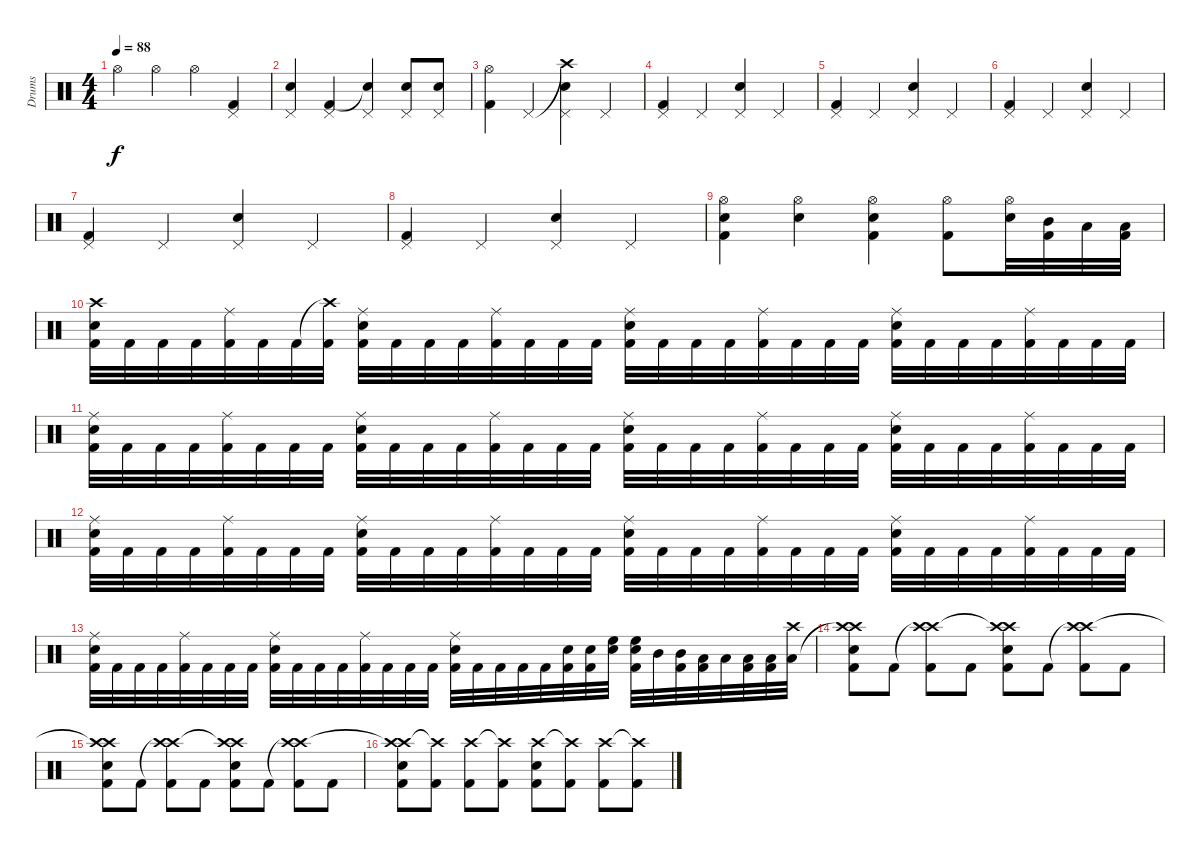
\track ("Drums" "Drums") {instrument percussion}
\staff {score}
\articulation defaults
\ts (4 4)
\tempo 88
\clef neutral
\ks c "Hi-Hat (open)".4{dy f} "Hi-Hat (open)".4 "Hi-Hat (open)".4
("Pedal Hi-Hat (hit)" "Kick (hit) 2").4 |
("Pedal Hi-Hat (hit)" "Electric Snare (hit)").4 ("Pedal Hi-Hat (hit)" "Kick (hit) 2").4 ("Pedal Hi-Hat (hit)" "Snare (hit) 2"{t}).4 ("Pedal Hi-Hat (hit)" "Electric Snare (hit)").8 ("Pedal Hi-Hat (hit)" "Electric Snare (hit)").8 |
("Hi-Hat (open)" "Kick (hit) 2").4 "Pedal Hi-Hat (hit)".4 ("Crash high (hit)"{t} "Pedal Hi-Hat (hit)" "Electric Snare (hit)").4 "Pedal Hi-Hat (hit)".4 |
("Pedal Hi-Hat (hit)" "Kick (hit) 2").4 "Pedal Hi-Hat (hit)".4 ("Pedal Hi-Hat (hit)" "Electric Snare (hit)").4 "Pedal Hi-Hat (hit)".4 |
("Pedal Hi-Hat (hit)" "Kick (hit) 2").4 "Pedal Hi-Hat (hit)".4 ("Pedal Hi-Hat (hit)" "Electric Snare (hit)").4 "Pedal Hi-Hat (hit)".4 |
("Pedal Hi-Hat (hit)" "Kick (hit) 2").4 "Pedal Hi-Hat (hit)".4 ("Pedal Hi-Hat (hit)" "Electric Snare (hit)").4 "Pedal Hi-Hat (hit)".4 |
("Pedal Hi-Hat (hit)" "Kick (hit) 2").4 "Pedal Hi-Hat (hit)".4 ("Pedal Hi-Hat (hit)" "Electric Snare (hit)").4 "Pedal Hi-Hat (hit)".4 |
("Pedal Hi-Hat (hit)" "Kick (hit) 2").4 "Pedal Hi-Hat (hit)".4 ("Pedal Hi-Hat (hit)" "Electric Snare (hit)").4 "Pedal Hi-Hat (hit)".4 |
("Hi-Hat (open)" "Kick (hit) 2" "Electric Snare (hit)").4 ("Hi-Hat (open)" "Electric Snare (hit)").4 ("Hi-Hat (open)" "Kick (hit) 2" "Electric Snare (hit)").4 ("Hi-Hat (open)" "Kick (hit) 2").8 ("Hi-Hat (open)" "Snare (hit) 2").32 ("Kick (hit) 2" "Mid Tom (hit)").32 "Low Tom (hit)".32 ("Kick (hit) 2" "Low Floor Tom (hit)").32 |
("Crash high (hit)" "Kick (hit) 2" "Electric Snare (hit)").32 "Kick (hit) 2".32 "Kick (hit) 2".32 "Kick (hit) 2".32 ("Ride (middle)" "Kick (hit) 2").32 "Kick (hit) 2".32 "Kick (hit) 2".32 ("Crash high (hit)"{t} "Kick (hit) 2").32 ("Ride (middle)" "Kick (hit) 2" "Electric Snare (hit)").32 "Kick (hit) 2".32 "Kick (hit) 2".32 "Kick (hit) 2".32 ("Ride (middle)" "Kick (hit) 2").32 "Kick (hit) 2".32 "Kick (hit) 2".32 "Kick (hit) 2".32 ("Ride (middle)" "Kick (hit) 2" "Electric Snare (hit)").32 "Kick (hit) 2".32 "Kick (hit) 2".32 "Kick (hit) 2".32 ("Ride (middle)" "Kick (hit) 2").32 "Kick (hit) 2".32 "Kick (hit) 2".32 "Kick (hit) 2".32 ("Ride (middle)" "Kick (hit) 2" "Electric Snare (hit)").32 "Kick (hit) 2".32 "Kick (hit) 2".32 "Kick (hit) 2".32 ("Ride (middle)" "Kick (hit) 2").32 "Kick (hit) 2".32 "Kick (hit) 2".32 "Kick (hit) 2".32 |
("Ride (middle)" "Kick (hit) 2" "Electric Snare (hit)").32 "Kick (hit) 2".32 "Kick (hit) 2".32 "Kick (hit) 2".32 ("Ride (middle)" "Kick (hit) 2").32 "Kick (hit) 2".32 "Kick (hit) 2".32 "Kick (hit) 2".32 ("Ride (middle)" "Kick (hit) 2" "Electric Snare (hit)").32 "Kick (hit) 2".32 "Kick (hit) 2".32 "Kick (hit) 2".32 ("Ride (middle)" "Kick (hit) 2").32 "Kick (hit) 2".32 "Kick (hit) 2".32 "Kick (hit) 2".32 ("Ride (middle)" "Kick (hit) 2" "Electric Snare (hit)").32 "Kick (hit) 2".32 "Kick (hit) 2".32 "Kick (hit) 2".32 ("Ride (middle)" "Kick (hit) 2").32 "Kick (hit) 2".32 "Kick (hit) 2".32 "Kick (hit) 2".32 ("Ride (middle)" "Kick (hit) 2" "Electric Snare (hit)").32 "Kick (hit) 2".32 "Kick (hit) 2".32 "Kick (hit) 2".32 ("Ride (middle)" "Kick (hit) 2").32 "Kick (hit) 2".32 "Kick (hit) 2".32 "Kick (hit) 2".32 |
("Ride (middle)" "Kick (hit) 2" "Electric Snare (hit)").32 "Kick (hit) 2".32 "Kick (hit) 2".32 "Kick (hit) 2".32 ("Ride (middle)" "Kick (hit) 2").32 "Kick (hit) 2".32 "Kick (hit) 2".32 "Kick (hit) 2".32 ("Ride (middle)" "Kick (hit) 2" "Electric Snare (hit)").32 "Kick (hit) 2".32 "Kick (hit) 2".32 "Kick (hit) 2".32 ("Ride (middle)" "Kick (hit) 2").32 "Kick (hit) 2".32 "Kick (hit) 2".32 "Kick (hit) 2".32 ("Ride (middle)" "Kick (hit) 2" "Electric Snare (hit)").32 "Kick (hit) 2".32 "Kick (hit) 2".32 "Kick (hit) 2".32 ("Ride (middle)" "Kick (hit) 2").32 "Kick (hit) 2".32 "Kick (hit) 2".32 "Kick (hit) 2".32 ("Ride (middle)" "Kick (hit) 2" "Electric Snare (hit)").32 "Kick (hit) 2".32 "Kick (hit) 2".32 "Kick (hit) 2".32 ("Ride (middle)" "Kick (hit) 2").32 "Kick (hit) 2".32 "Kick (hit) 2".32 "Kick (hit) 2".32 |
("Ride (middle)" "Kick (hit) 2" "Electric Snare (hit)").32 "Kick (hit) 2".32 "Kick (hit) 2".32 "Kick (hit) 2".32 ("Ride (middle)" "Kick (hit) 2").32 "Kick (hit) 2".32 "Kick (hit) 2".32 "Kick (hit) 2".32 ("Ride (middle)" "Kick (hit) 2" "Electric Snare (hit)").32 "Kick (hit) 2".32 "Kick (hit) 2".32 "Kick (hit) 2".32 ("Ride (middle)" "Kick (hit) 2").32 "Kick (hit) 2".32 "Kick (hit) 2".32 "Kick (hit) 2".32 ("Ride (middle)" "Kick (hit) 2" "Electric Snare (hit)").32 "Kick (hit) 2".32 "Kick (hit) 2".32 "Kick (hit) 2".32 "Kick (hit) 2".32 ("Kick (hit) 2" "Electric Snare (hit)").32 ("Kick (hit) 2" "Electric Snare (hit)").32 ("High Floor Tom (hit)" "Electric Snare (hit)").32 ("Kick (hit) 2" "High Floor Tom (hit)" "Electric Snare (hit)").32 "Mid Tom (hit)".32 ("Kick (hit) 2" "Mid Tom (hit)").32 ("Kick (hit) 2" "Low Tom (hit)").32 "Low Tom (hit)".32 ("Kick (hit) 2" "Low Floor Tom (hit)").32 ("Kick (hit) 2" "Low Floor Tom (hit)").32 ("Crash high (hit)" "Low Floor Tom (hit)").32 |
("Crash high (hit)" "Crash high (hit)"{t} "Kick (hit) 2" "Electric Snare (hit)").8 "Kick (hit) 2".8 ("Crash high (hit)"{t} "Crash high (hit)" "Kick (hit) 2").8 "Kick (hit) 2".8 ("Crash high (hit)" "Crash high (hit)"{t} "Kick (hit) 2" "Electric Snare (hit)").8 "Kick (hit) 2".8 ("Crash high (hit)"{t} "Crash high (hit)" "Kick (hit) 2").8 "Kick (hit) 2".8 |
("Crash high (hit)" "Crash high (hit)"{t} "Kick (hit) 2" "Electric Snare (hit)").8 "Kick (hit) 2".8 ("Crash high (hit)"{t} "Crash high (hit)" "Kick (hit) 2").8 "Kick (hit) 2".8 ("Crash high (hit)" "Crash high (hit)"{t} "Kick (hit) 2" "Electric Snare (hit)").8 "Kick (hit) 2".8 ("Crash high (hit)"{t} "Crash high (hit)" "Kick (hit) 2").8 "Kick (hit) 2".8 |
("Crash high (hit)" "Crash high (hit)"{t} "Kick (hit) 2" "Electric Snare (hit)").8 ("Crash high (hit)"{t} "Kick (hit) 2").8 ("Crash high (hit)" "Kick (hit) 2").8 ("Crash high (hit)"{t} "Kick (hit) 2").8 ("Crash high (hit)" "Kick (hit) 2" "Electric Snare (hit)").8 ("Crash high (hit)"{t} "Kick (hit) 2").8 ("Crash high (hit)" "Kick (hit) 2").8 ("Crash high (hit)"{t} "Kick (hit) 2").8
